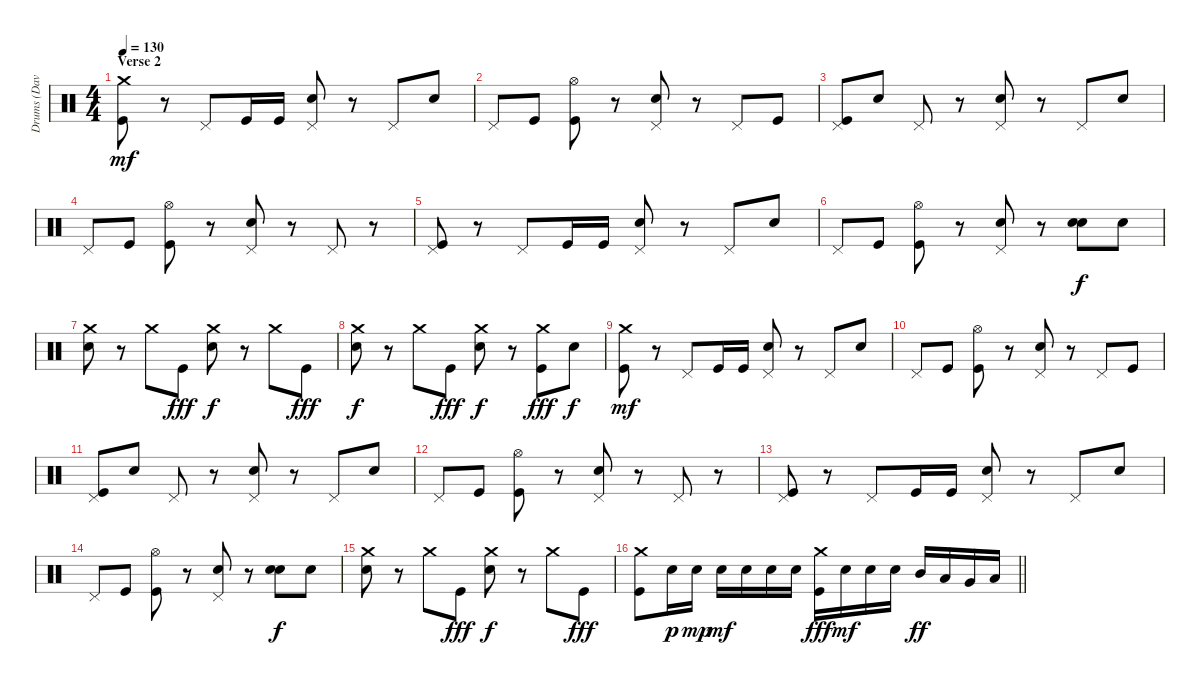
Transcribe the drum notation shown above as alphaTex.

\track ("Drums (Dave Chavarri)" "Drums (Dav") {instrument percussion}
\staff {score}
\articulation defaults
\ts (4 4)
\section ("" "Verse 2")
\tempo 130
\clef neutral
\ks c
("Crash medium (hit)" "Kick (hit)").8{dy mf} r.8 "Pedal Hi-Hat (hit)".8 "Kick (hit)".16 "Kick (hit)".16 ("Pedal Hi-Hat (hit)" "Electric Snare (hit)").8 r.8 "Pedal Hi-Hat (hit)".8 "Electric Snare (hit)".8 |
"Pedal Hi-Hat (hit)".8 "Kick (hit)".8 ("Hi-Hat (open)" "Kick (hit)").8 r.8 ("Pedal Hi-Hat (hit)" "Electric Snare (hit)").8 r.8 "Pedal Hi-Hat (hit)".8 "Kick (hit)".8 |
("Pedal Hi-Hat (hit)" "Kick (hit)").8 "Electric Snare (hit)".8 "Pedal Hi-Hat (hit)".8 r.8 ("Pedal Hi-Hat (hit)" "Electric Snare (hit)").8 r.8 "Pedal Hi-Hat (hit)".8 "Electric Snare (hit)".8 |
"Pedal Hi-Hat (hit)".8 "Kick (hit)".8 ("Hi-Hat (open)" "Kick (hit)").8 r.8 ("Pedal Hi-Hat (hit)" "Electric Snare (hit)").8 r.8 "Pedal Hi-Hat (hit)".8 r.8 |
("Pedal Hi-Hat (hit)" "Kick (hit)").8 r.8 "Pedal Hi-Hat (hit)".8 "Kick (hit)".16 "Kick (hit)".16 ("Pedal Hi-Hat (hit)" "Electric Snare (hit)").8 r.8 "Pedal Hi-Hat (hit)".8 "Electric Snare (hit)".8 |
"Pedal Hi-Hat (hit)".8 "Kick (hit)".8 ("Hi-Hat (open)" "Kick (hit)").8 r.8 ("Pedal Hi-Hat (hit)" "Electric Snare (hit)").8 r.8 ("Electric Snare (hit)" "Electric Snare (hit)").8{bd 120 dy f} "Electric Snare (hit)".8 |
("Crash medium (hit)" "Electric Snare (hit)").8 r.8 "Crash medium (hit)".8 "Kick (hit)".8{dy fff} ("Crash medium (hit)" "Electric Snare (hit)").8{dy f} r.8 "Crash medium (hit)".8 "Kick (hit)".8{dy fff} |
("Crash medium (hit)" "Electric Snare (hit)").8{dy f} r.8 "Crash medium (hit)".8 "Kick (hit)".8{dy fff} ("Crash medium (hit)" "Electric Snare (hit)").8{dy f} r.8 ("Crash medium (hit)" "Kick (hit)").8{dy fff} "Electric Snare (hit)".8{dy f} |
("Crash medium (hit)" "Kick (hit)").8{dy mf} r.8 "Pedal Hi-Hat (hit)".8 "Kick (hit)".16 "Kick (hit)".16 ("Pedal Hi-Hat (hit)" "Electric Snare (hit)").8 r.8 "Pedal Hi-Hat (hit)".8 "Electric Snare (hit)".8 |
"Pedal Hi-Hat (hit)".8 "Kick (hit)".8 ("Hi-Hat (open)" "Kick (hit)").8 r.8 ("Pedal Hi-Hat (hit)" "Electric Snare (hit)").8 r.8 "Pedal Hi-Hat (hit)".8 "Kick (hit)".8 |
("Pedal Hi-Hat (hit)" "Kick (hit)").8 "Electric Snare (hit)".8 "Pedal Hi-Hat (hit)".8 r.8 ("Pedal Hi-Hat (hit)" "Electric Snare (hit)").8 r.8 "Pedal Hi-Hat (hit)".8 "Electric Snare (hit)".8 |
"Pedal Hi-Hat (hit)".8 "Kick (hit)".8 ("Hi-Hat (open)" "Kick (hit)").8 r.8 ("Pedal Hi-Hat (hit)" "Electric Snare (hit)").8 r.8 "Pedal Hi-Hat (hit)".8 r.8 |
("Pedal Hi-Hat (hit)" "Kick (hit)").8 r.8 "Pedal Hi-Hat (hit)".8 "Kick (hit)".16 "Kick (hit)".16 ("Pedal Hi-Hat (hit)" "Electric Snare (hit)").8 r.8 "Pedal Hi-Hat (hit)".8 "Electric Snare (hit)".8 |
"Pedal Hi-Hat (hit)".8 "Kick (hit)".8 ("Hi-Hat (open)" "Kick (hit)").8 r.8 ("Pedal Hi-Hat (hit)" "Electric Snare (hit)").8 r.8 ("Electric Snare (hit)" "Electric Snare (hit)").8{bd 120 dy f} "Electric Snare (hit)".8 |
("Crash medium (hit)" "Electric Snare (hit)").8 r.8 "Crash medium (hit)".8 "Kick (hit)".8{dy fff} ("Crash medium (hit)" "Electric Snare (hit)").8{dy f} r.8 "Crash medium (hit)".8 "Kick (hit)".8{dy fff} |
\barLineRight lightlight
("Crash medium (hit)" "Kick (hit)").8 "Electric Snare (hit)".16{dy p} "Electric Snare (hit)".16{dy mp} "Electric Snare (hit)".16{dy mf} "Electric Snare (hit)".16 "Electric Snare (hit)".16 "Electric Snare (hit)".16 ("Crash medium (hit)" "Kick (hit)").16{dy fff} "Electric Snare (hit)".16{dy mf} "Electric Snare (hit)".16 "Electric Snare (hit)".16 "Mid Tom (hit)".16{dy ff} "Low Tom (hit)".16 "Very Low Tom (hit)".16 "Low Floor Tom (hit)".16
